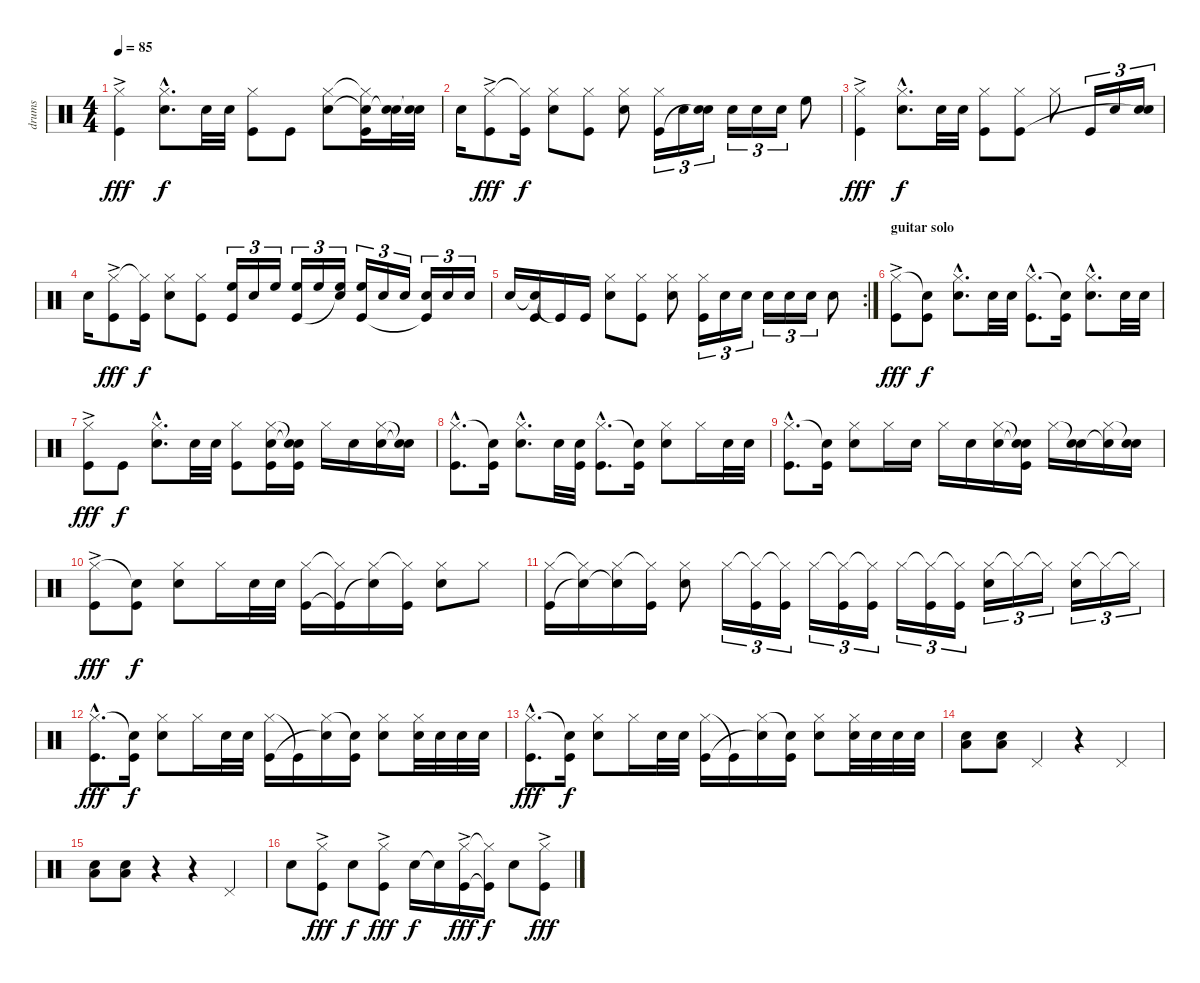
\track ("drums" "drums") {instrument percussion}
\staff {score}
\articulation defaults
\ts (4 4)
\tempo 85
\clef neutral
\ks c
("Hi-Hat (closed)" "Kick (hit)"{ac}).4{dy fff} ("Hi-Hat (closed)"{hac} "Snare (hit) 2"{hac}).8{d dy f} "Snare (hit) 2".32 "Snare (hit) 2".32 ("Hi-Hat (closed)" "Kick (hit)").8 "Kick (hit)".8 ("Hi-Hat (closed)" "Snare (hit) 2").8 ("Hi-Hat (closed)"{t} "Snare (hit)"{t} "Kick (hit)").16 ("Snare (hit) 2" "Snare (hit)"{t}).32 ("Snare (hit) 2" "Snare (hit)"{t}).32 |
"Snare (hit) 2".16 ("Hi-Hat (closed)"{ac} "Kick (hit)").8{dy fff} ("Hi-Hat (closed)"{t} "Kick (hit)").16{dy f} ("Hi-Hat (closed)" "Snare (hit) 2").8 ("Hi-Hat (closed)" "Kick (hit)").8 ("Hi-Hat (closed)" "Snare (hit) 2").8 ("Hi-Hat (closed)" "Kick (hit)").16{tu (3 2)} "Snare (hit) 2".16{tu (3 2)} ("Snare (hit) 2" "Snare (hit)"{t}).16{tu (3 2)} "Snare (hit) 2".16{tu (3 2)} "Snare (hit) 2".16{tu (3 2)} "Snare (hit) 2".16{tu (3 2)} "High Floor Tom (hit)".8 |
("Hi-Hat (closed)" "Kick (hit)"{ac}).4{dy fff} ("Hi-Hat (closed)"{hac} "Snare (hit) 2"{hac}).8{d dy f} "Snare (hit) 2".32 "Snare (hit) 2".32 ("Hi-Hat (closed)" "Kick (hit)").8 ("Hi-Hat (closed)" "Kick (hit)").8 "Hi-Hat (closed)".8 "Kick (hit)".16{tu (3 2)} "Snare (hit) 2".16{tu (3 2)} ("Snare (hit) 2" "Snare (hit)"{t}).16{tu (3 2)} |
"Snare (hit) 2".16 ("Hi-Hat (closed)"{ac} "Kick (hit)").8{dy fff} ("Hi-Hat (closed)"{t} "Kick (hit)").16{dy f} ("Hi-Hat (closed)" "Snare (hit) 2").8 ("Hi-Hat (closed)" "Kick (hit)").8 ("High Floor Tom (hit)" "Kick (hit)").16{tu (3 2)} "Snare (hit) 2".16{tu (3 2)} "High Floor Tom (hit)".16{tu (3 2)} ("High Floor Tom (hit)" "Kick (hit)").16{tu (3 2)} "High Floor Tom (hit)".16{tu (3 2)} ("High Floor Tom (hit)" "Snare (hit)"{t}).16{tu (3 2)} ("High Floor Tom (hit)" "Kick (hit)").16{tu (3 2)} "Snare (hit) 2".16{tu (3 2)} "Snare (hit) 2".16{tu (3 2)} ("Snare (hit) 2" "Kick (hit)"{t}).16{tu (3 2)} "Snare (hit) 2".16{tu (3 2)} "Snare (hit) 2".16{tu (3 2)} |
\rc 2 "Snare (hit) 2".16
("Snare (hit)"{t} "Kick (hit)").16 "Kick (hit)"{t}.16 "Kick (hit)".16 ("Hi-Hat (closed)" "Snare (hit) 2").8 ("Hi-Hat (closed)" "Kick (hit)").8 ("Hi-Hat (closed)" "Snare (hit) 2").8 ("Hi-Hat (closed)" "Kick (hit)").16{tu (3 2)} "Snare (hit) 2".16{tu (3 2)} "Snare (hit) 2".16{tu (3 2)} "Snare (hit) 2".16{tu (3 2)} "Snare (hit) 2".16{tu (3 2)} "Snare (hit) 2".16{tu (3 2)} "Snare (hit) 2".8 |
\section ("" "guitar solo ")
("Hi-Hat (closed)" "Kick (hit)"{ac}).8{dy fff} ("Snare (hit)"{t} "Kick (hit)").8{dy f} ("Hi-Hat (closed)"{hac} "Snare (hit) 2"{hac}).8{d} "Snare (hit) 2".32 "Snare (hit) 2".32 ("Hi-Hat (closed)"{hac} "Kick (hit)"{hac}).8{d} ("Snare (hit)"{t} "Kick (hit)").16 ("Hi-Hat (closed)"{hac} "Snare (hit) 2"{hac}).8{d} "Snare (hit) 2".32 "Snare (hit) 2".32 |
("Hi-Hat (closed)"{ac} "Kick (hit)"{ac}).8{dy fff} "Kick (hit)".8{dy f} ("Hi-Hat (closed)"{hac} "Snare (hit) 2"{hac}).8{d} "Snare (hit) 2".32 "Snare (hit) 2".32 ("Hi-Hat (closed)" "Kick (hit)").8 ("Hi-Hat (closed)" "Snare (hit) 2" "Kick (hit)").16 ("Snare (hit)"{t} "Snare (hit)"{t} "Kick (hit)").16 "Hi-Hat (closed)".16 "Snare (hit) 2".16 ("Hi-Hat (closed)" "Snare (hit) 2").16 ("Snare (hit)"{t} "Snare (hit) 2"{t}).16 |
("Hi-Hat (closed)"{hac} "Kick (hit)"{hac}).8{d} ("Snare (hit)"{t} "Kick (hit)").16 ("Hi-Hat (closed)"{hac} "Snare (hit) 2"{hac}).8{d} "Snare (hit) 2".32 ("Snare (hit) 2" "Kick (hit)").32 ("Hi-Hat (closed)"{hac} "Kick (hit)"{hac}).8{d} ("Snare (hit)"{t} "Kick (hit)").16 ("Hi-Hat (closed)" "Snare (hit) 2").8 "Hi-Hat (closed)".16 "Snare (hit) 2".32 "Snare (hit) 2".32 |
("Hi-Hat (closed)"{hac} "Kick (hit)"{hac}).8{d} ("Snare (hit)"{t} "Kick (hit)").16 ("Hi-Hat (closed)" "Snare (hit) 2").8 "Hi-Hat (closed)".16 "Snare (hit) 2".16 "Hi-Hat (closed)".16 "Snare (hit) 2".16 ("Hi-Hat (closed)" "Snare (hit) 2").16 ("Snare (hit)"{t} "Snare (hit)"{t} "Kick (hit)").16 "Hi-Hat (closed)".16 ("Snare (hit)"{t} "Snare (hit) 2").16 ("Hi-Hat (closed)" "Snare (hit) 2"{t}).16 ("Snare (hit)"{t} "Snare (hit) 2").16 |
("Hi-Hat (closed)" "Kick (hit)"{ac}).8{dy fff} ("Snare (hit)"{t} "Kick (hit)").8{dy f} ("Hi-Hat (closed)" "Snare (hit) 2").8 "Hi-Hat (closed)".16 "Snare (hit) 2".32 "Snare (hit) 2".32 ("Hi-Hat (closed)" "Kick (hit)").16 ("Hi-Hat (closed)"{t} "Kick (hit)"{t}).16 ("Hi-Hat (closed)" "Snare (hit)"{t}).16 ("Hi-Hat (closed)"{t} "Kick (hit)").16 ("Hi-Hat (closed)" "Snare (hit) 2").8 "Hi-Hat (closed)".8 |
("Hi-Hat (closed)" "Kick (hit)").16 ("Hi-Hat (closed)"{t} "Snare (hit)"{t}).16 ("Hi-Hat (closed)" "Snare (hit)"{t}).16 ("Hi-Hat (closed)"{t} "Kick (hit)").16 ("Hi-Hat (closed)" "Snare (hit) 2").8 "Hi-Hat (closed)".16{tu (3 2)} ("Hi-Hat (closed)"{t} "Kick (hit)").16{tu (3 2)} ("Hi-Hat (closed)"{t} "Kick (hit)").16{tu (3 2)} "Hi-Hat (closed)".16{tu (3 2)} ("Hi-Hat (closed)"{t} "Kick (hit)").16{tu (3 2)} ("Hi-Hat (closed)"{t} "Kick (hit)").16{tu (3 2)} "Hi-Hat (closed)".16{tu (3 2)} ("Hi-Hat (closed)"{t} "Kick (hit)").16{tu (3 2)} ("Hi-Hat (closed)"{t} "Kick (hit)").16{tu (3 2)} ("Hi-Hat (closed)" "Snare (hit) 2").16{tu (3 2)} "Hi-Hat (closed)"{t}.16{tu (3 2)} "Hi-Hat (closed)"{t}.16{tu (3 2)} ("Hi-Hat (closed)" "Snare (hit) 2").16{tu (3 2)} "Hi-Hat (closed)"{t}.16{tu (3 2)} "Hi-Hat (closed)"{t}.16{tu (3 2)} |
("Hi-Hat (closed)"{hac} "Kick (hit)"{hac}).8{d dy fff} ("Snare (hit)"{t} "Kick (hit)").16{dy f} ("Hi-Hat (closed)" "Snare (hit) 2").8 "Hi-Hat (closed)".16 "Snare (hit) 2".32 "Snare (hit) 2".32 ("Hi-Hat (closed)" "Kick (hit)").16 "Kick (hit)"{t}.16 ("Hi-Hat (closed)" "Snare (hit)"{t}).16 ("Snare (hit)"{t} "Kick (hit)").16 ("Hi-Hat (closed)" "Snare (hit) 2").8 ("Hi-Hat (closed)" "Snare (hit) 2").32 "Snare (hit) 2".32 "Snare (hit) 2".32 "Snare (hit) 2".32 |
("Hi-Hat (closed)"{hac} "Kick (hit)"{hac}).8{d dy fff} ("Snare (hit)"{t} "Kick (hit)").16{dy f} ("Hi-Hat (closed)" "Snare (hit) 2").8 "Hi-Hat (closed)".16 "Snare (hit) 2".32 "Snare (hit) 2".32 ("Hi-Hat (closed)" "Kick (hit)").16 "Kick (hit)"{t}.16 ("Hi-Hat (closed)" "Snare (hit)"{t}).16 ("Snare (hit)"{t} "Kick (hit)").16 ("Hi-Hat (closed)" "Snare (hit) 2").8 ("Hi-Hat (closed)" "Snare (hit) 2").32 "Snare (hit) 2".32 "Snare (hit) 2".32 "Snare (hit) 2".32 |
("Snare (hit) 2" "Low Floor Tom (hit)").8 ("Snare (hit) 2" "Low Floor Tom (hit)").8 "Pedal Hi-Hat (hit)".4 r.4 "Pedal Hi-Hat (hit)".4 |
("Snare (hit) 2" "Low Floor Tom (hit)").8 ("Snare (hit) 2" "Low Floor Tom (hit)").8 r.4 r.4 "Pedal Hi-Hat (hit)".4 |
"Snare (hit) 2".8 ("Hi-Hat (closed)"{ac} "Kick (hit)").8{dy fff} "Snare (hit) 2".8{dy f} ("Hi-Hat (closed)"{ac} "Kick (hit)").8{dy fff} "Snare (hit) 2".16{dy f} "Snare (hit)"{t}.16 ("Hi-Hat (closed)"{ac} "Kick (hit)").16{dy fff} ("Hi-Hat (closed)"{t} "Kick (hit)"{t}).16{dy f} "Snare (hit) 2".8 ("Hi-Hat (closed)"{ac} "Kick (hit)").8{dy fff}
